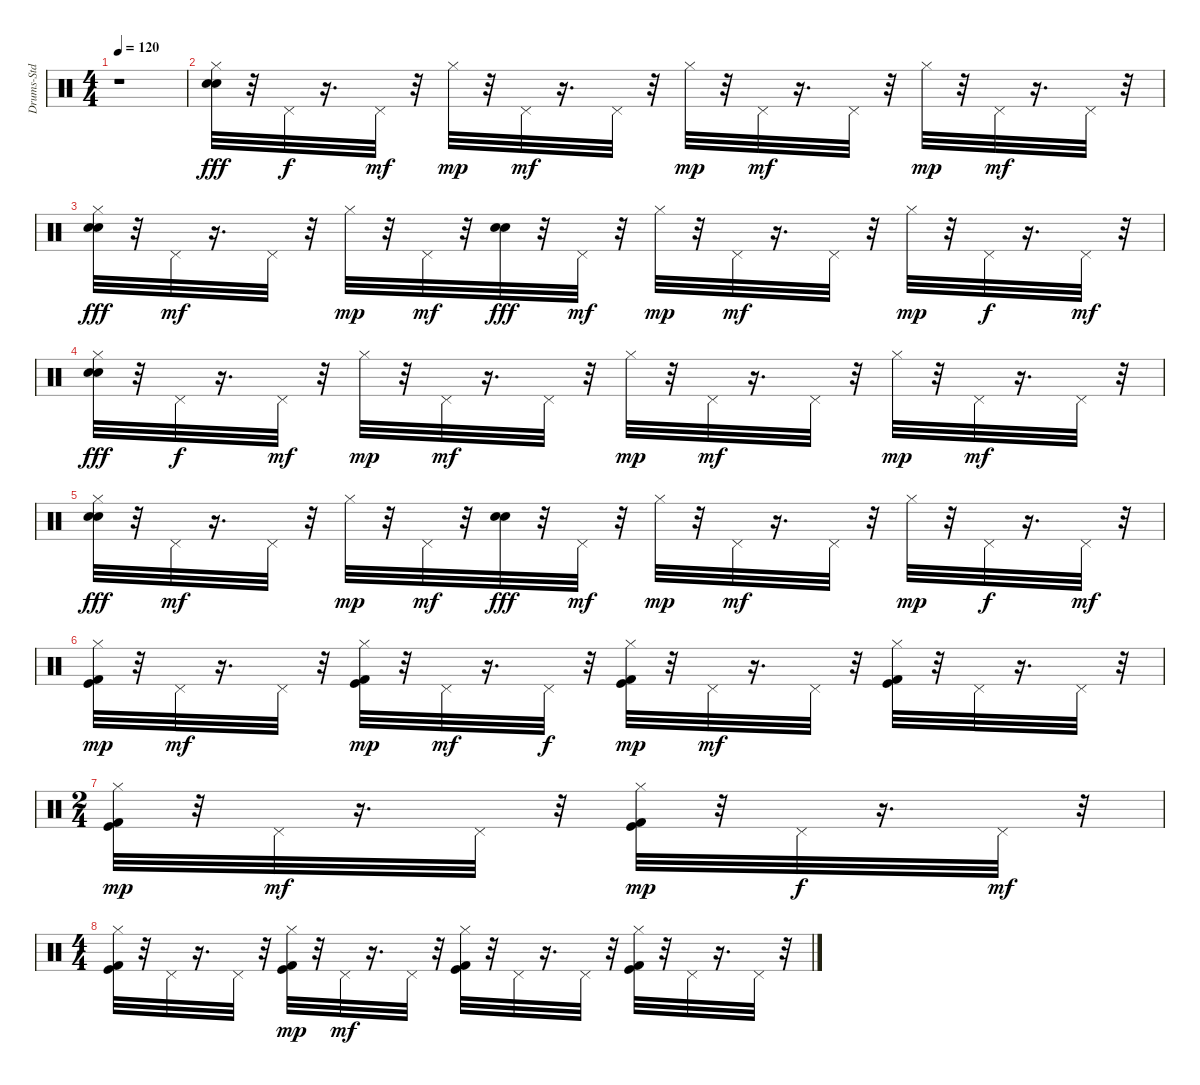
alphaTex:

\track ("Drums-Std" "Drums-Std") {instrument percussion}
\staff {score}
\articulation defaults
\ts (4 4)
\tempo 120
\clef neutral
\ks c
r.1{dy fff} |
("Hi-Hat (closed)" "Snare (hit) 2" "Electric Snare (hit)").32 r.32 "Pedal Hi-Hat (hit)".32{dy f} r.16{d} "Pedal Hi-Hat (hit)".32{dy mf} r.32 "Hi-Hat (closed)".32{dy mp} r.32 "Pedal Hi-Hat (hit)".32{dy mf} r.16{d} "Pedal Hi-Hat (hit)".32 r.32 "Hi-Hat (closed)".32{dy mp} r.32 "Pedal Hi-Hat (hit)".32{dy mf} r.16{d} "Pedal Hi-Hat (hit)".32 r.32 "Hi-Hat (closed)".32{dy mp} r.32 "Pedal Hi-Hat (hit)".32{dy mf} r.16{d} "Pedal Hi-Hat (hit)".32 r.32 |
("Hi-Hat (closed)" "Snare (hit) 2" "Electric Snare (hit)").32{dy fff} r.32 "Pedal Hi-Hat (hit)".32{dy mf} r.16{d} "Pedal Hi-Hat (hit)".32 r.32 "Hi-Hat (closed)".32{dy mp} r.32 "Pedal Hi-Hat (hit)".32{dy mf} r.32 ("Snare (hit) 2" "Electric Snare (hit)").32{dy fff} r.32 "Pedal Hi-Hat (hit)".32{dy mf} r.32 "Hi-Hat (closed)".32{dy mp} r.32 "Pedal Hi-Hat (hit)".32{dy mf} r.16{d} "Pedal Hi-Hat (hit)".32 r.32 "Hi-Hat (closed)".32{dy mp} r.32 "Pedal Hi-Hat (hit)".32{dy f} r.16{d} "Pedal Hi-Hat (hit)".32{dy mf} r.32 |
("Hi-Hat (closed)" "Snare (hit) 2" "Electric Snare (hit)").32{dy fff} r.32 "Pedal Hi-Hat (hit)".32{dy f} r.16{d} "Pedal Hi-Hat (hit)".32{dy mf} r.32 "Hi-Hat (closed)".32{dy mp} r.32 "Pedal Hi-Hat (hit)".32{dy mf} r.16{d} "Pedal Hi-Hat (hit)".32 r.32 "Hi-Hat (closed)".32{dy mp} r.32 "Pedal Hi-Hat (hit)".32{dy mf} r.16{d} "Pedal Hi-Hat (hit)".32 r.32 "Hi-Hat (closed)".32{dy mp} r.32 "Pedal Hi-Hat (hit)".32{dy mf} r.16{d} "Pedal Hi-Hat (hit)".32 r.32 |
("Hi-Hat (closed)" "Snare (hit) 2" "Electric Snare (hit)").32{dy fff} r.32 "Pedal Hi-Hat (hit)".32{dy mf} r.16{d} "Pedal Hi-Hat (hit)".32 r.32 "Hi-Hat (closed)".32{dy mp} r.32 "Pedal Hi-Hat (hit)".32{dy mf} r.32 ("Snare (hit) 2" "Electric Snare (hit)").32{dy fff} r.32 "Pedal Hi-Hat (hit)".32{dy mf} r.32 "Hi-Hat (closed)".32{dy mp} r.32 "Pedal Hi-Hat (hit)".32{dy mf} r.16{d} "Pedal Hi-Hat (hit)".32 r.32 "Hi-Hat (closed)".32{dy mp} r.32 "Pedal Hi-Hat (hit)".32{dy f} r.16{d} "Pedal Hi-Hat (hit)".32{dy mf} r.32 |
("Hi-Hat (closed)" "Kick (hit) 2" "Kick (hit)").32{dy mp} r.32 "Pedal Hi-Hat (hit)".32{dy mf} r.16{d} "Pedal Hi-Hat (hit)".32 r.32 ("Hi-Hat (closed)" "Kick (hit) 2" "Kick (hit)").32{dy mp} r.32 "Pedal Hi-Hat (hit)".32{dy mf} r.16{d} "Pedal Hi-Hat (hit)".32{dy f} r.32 ("Hi-Hat (closed)" "Kick (hit) 2" "Kick (hit)").32{dy mp} r.32 "Pedal Hi-Hat (hit)".32{dy mf} r.16{d} "Pedal Hi-Hat (hit)".32 r.32 ("Hi-Hat (closed)" "Kick (hit) 2" "Kick (hit)").32 r.32 "Pedal Hi-Hat (hit)".32 r.16{d} "Pedal Hi-Hat (hit)".32 r.32 |
\ts (2 4)
("Hi-Hat (closed)" "Kick (hit) 2" "Kick (hit)").32{dy mp} r.32 "Pedal Hi-Hat (hit)".32{dy mf} r.16{d} "Pedal Hi-Hat (hit)".32 r.32 ("Hi-Hat (closed)" "Kick (hit) 2" "Kick (hit)").32{dy mp} r.32 "Pedal Hi-Hat (hit)".32{dy f} r.16{d} "Pedal Hi-Hat (hit)".32{dy mf} r.32 |
\ts (4 4)
("Hi-Hat (closed)" "Kick (hit) 2" "Kick (hit)").32 r.32 "Pedal Hi-Hat (hit)".32 r.16{d} "Pedal Hi-Hat (hit)".32 r.32 ("Hi-Hat (closed)" "Kick (hit) 2" "Kick (hit)").32{dy mp} r.32 "Pedal Hi-Hat (hit)".32{dy mf} r.16{d} "Pedal Hi-Hat (hit)".32 r.32 ("Hi-Hat (closed)" "Kick (hit) 2" "Kick (hit)").32 r.32 "Pedal Hi-Hat (hit)".32 r.16{d} "Pedal Hi-Hat (hit)".32 r.32 ("Hi-Hat (closed)" "Kick (hit) 2" "Kick (hit)").32 r.32 "Pedal Hi-Hat (hit)".32 r.16{d} "Pedal Hi-Hat (hit)".32 r.32
